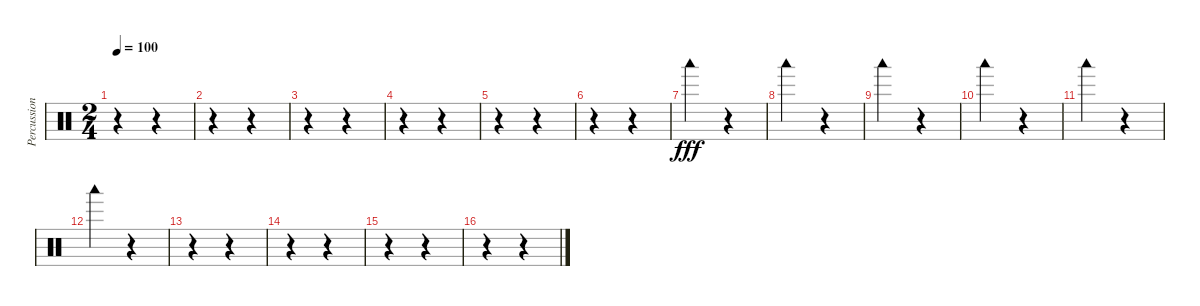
\track ("Percussion" "Percussion") {instrument percussion}
\staff {score}
\articulation defaults
\ts (2 4)
\tempo 100
\clef neutral
\ks c
r.4{dy fff} r.4 |
r.4 r.4 |
r.4 r.4 |
r.4 r.4 |
r.4 r.4 |
r.4 r.4 |
"Woodblock low (hit)".4 r.4 |
"Woodblock low (hit)".4 r.4 |
"Woodblock low (hit)".4 r.4 |
"Woodblock low (hit)".4 r.4 |
"Woodblock low (hit)".4 r.4 |
"Woodblock low (hit)".4 r.4 |
r.4 r.4 |
r.4 r.4 |
r.4 r.4 |
r.4 r.4
